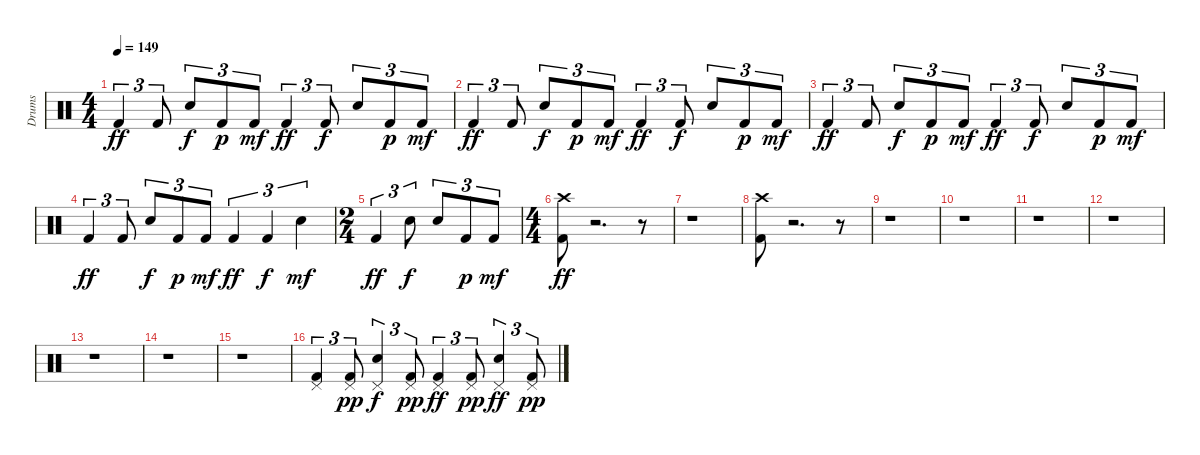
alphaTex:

\track ("Drums" "Drums") {instrument percussion}
\staff {score}
\articulation defaults
\ts (4 4)
\tempo 149
\clef neutral
\ks c "Kick (hit) 2".4{tu (3 2) dy ff} "Kick (hit) 2".8{tu (3 2)} "Snare (hit) 2".8{tu (3 2) dy f} "Kick (hit) 2".8{tu (3 2) dy p} "Kick (hit) 2".8{tu (3 2) dy mf} "Kick (hit) 2".4{tu (3 2) dy ff} "Kick (hit) 2".8{tu (3 2) dy f} "Snare (hit) 2".8{tu (3 2)} "Kick (hit) 2".8{tu (3 2) dy p} "Kick (hit) 2".8{tu (3 2) dy mf}
|
"Kick (hit) 2".4{tu (3 2) dy ff} "Kick (hit) 2".8{tu (3 2)} "Snare (hit) 2".8{tu (3 2) dy f} "Kick (hit) 2".8{tu (3 2) dy p} "Kick (hit) 2".8{tu (3 2) dy mf} "Kick (hit) 2".4{tu (3 2) dy ff} "Kick (hit) 2".8{tu (3 2) dy f} "Snare (hit) 2".8{tu (3 2)} "Kick (hit) 2".8{tu (3 2) dy p} "Kick (hit) 2".8{tu (3 2) dy mf} |
"Kick (hit) 2".4{tu (3 2) dy ff} "Kick (hit) 2".8{tu (3 2)} "Snare (hit) 2".8{tu (3 2) dy f} "Kick (hit) 2".8{tu (3 2) dy p} "Kick (hit) 2".8{tu (3 2) dy mf} "Kick (hit) 2".4{tu (3 2) dy ff} "Kick (hit) 2".8{tu (3 2) dy f} "Snare (hit) 2".8{tu (3 2)} "Kick (hit) 2".8{tu (3 2) dy p} "Kick (hit) 2".8{tu (3 2) dy mf} |
"Kick (hit) 2".4{tu (3 2) dy ff} "Kick (hit) 2".8{tu (3 2)} "Snare (hit) 2".8{tu (3 2) dy f} "Kick (hit) 2".8{tu (3 2) dy p} "Kick (hit) 2".8{tu (3 2) dy mf} "Kick (hit) 2".4{tu (3 2) dy ff} "Kick (hit) 2".4{tu (3 2) dy f} "Snare (hit) 2".4{tu (3 2) dy mf} |
\ts (2 4)
"Kick (hit) 2".4{tu (3 2) dy ff} "Snare (hit) 2".8{tu (3 2) dy f} "Snare (hit) 2".8{tu (3 2)} "Kick (hit) 2".8{tu (3 2) dy p} "Kick (hit) 2".8{tu (3 2) dy mf} |
\ts (4 4)
("Kick (hit) 2" "Crash high (hit)").8{dy ff} r.2{d} r.8 |
r.1 |
("Kick (hit) 2" "Crash high (hit)").8 r.2{d} r.8 |
r.1 |
r.1 |
r.1 |
r.1 |
r.1 |
r.1 |
r.1 |
("Kick (hit) 2" "Pedal Hi-Hat (hit)").4{tu (3 2)} ("Kick (hit) 2" "Pedal Hi-Hat (hit)").8{tu (3 2) dy pp} ("Snare (hit) 2" "Pedal Hi-Hat (hit)").4{tu (3 2) dy f} ("Kick (hit) 2" "Pedal Hi-Hat (hit)").8{tu (3 2) dy pp} ("Kick (hit) 2" "Pedal Hi-Hat (hit)").4{tu (3 2) dy ff} ("Kick (hit) 2" "Pedal Hi-Hat (hit)").8{tu (3 2) dy pp} ("Snare (hit) 2" "Pedal Hi-Hat (hit)").4{tu (3 2) dy ff} ("Kick (hit) 2" "Pedal Hi-Hat (hit)").8{tu (3 2) dy pp}
